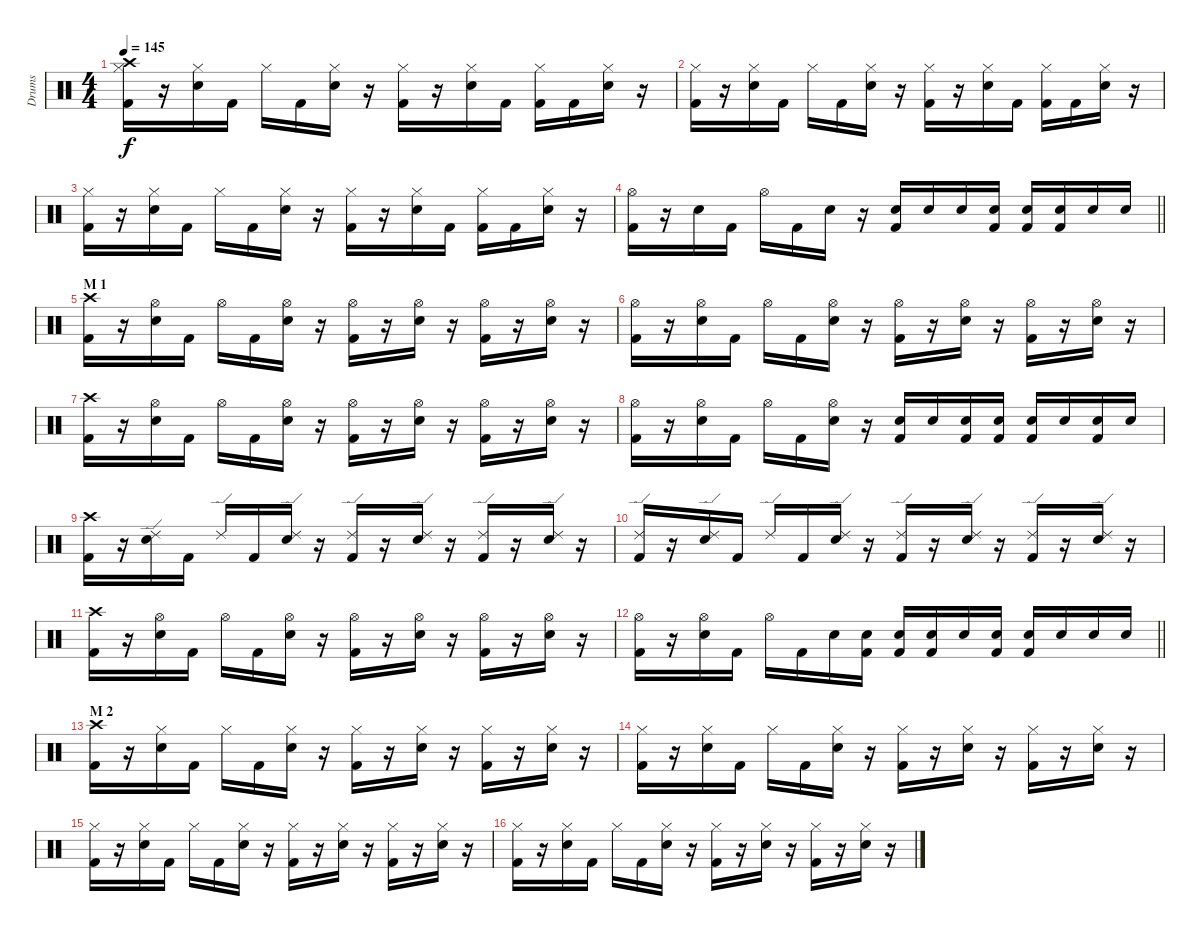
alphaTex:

\track ("Drums" "Drums") {instrument percussion}
\staff {score}
\articulation defaults
\ts (4 4)
\tempo 145
\clef neutral
\ks c
("Crash high (hit)" "Hi-Hat (closed)" "Kick (hit) 2").16{dy f} r.16 ("Hi-Hat (closed)" "Electric Snare (hit)").16 "Kick (hit) 2".16 "Hi-Hat (closed)".16 "Kick (hit) 2".16 ("Hi-Hat (closed)" "Electric Snare (hit)").16 r.16 ("Hi-Hat (closed)" "Kick (hit) 2").16 r.16 ("Hi-Hat (closed)" "Electric Snare (hit)").16 "Kick (hit) 2".16 ("Hi-Hat (closed)" "Kick (hit) 2").16 "Kick (hit) 2".16 ("Hi-Hat (closed)" "Electric Snare (hit)").16 r.16 |
("Hi-Hat (closed)" "Kick (hit) 2").16 r.16 ("Hi-Hat (closed)" "Electric Snare (hit)").16 "Kick (hit) 2".16 "Hi-Hat (closed)".16 "Kick (hit) 2".16 ("Hi-Hat (closed)" "Electric Snare (hit)").16 r.16 ("Hi-Hat (closed)" "Kick (hit) 2").16 r.16 ("Hi-Hat (closed)" "Electric Snare (hit)").16 "Kick (hit) 2".16 ("Hi-Hat (closed)" "Kick (hit) 2").16 "Kick (hit) 2".16 ("Hi-Hat (closed)" "Electric Snare (hit)").16 r.16 |
("Hi-Hat (closed)" "Kick (hit) 2").16 r.16 ("Hi-Hat (closed)" "Electric Snare (hit)").16 "Kick (hit) 2".16 "Hi-Hat (closed)".16 "Kick (hit) 2".16 ("Hi-Hat (closed)" "Electric Snare (hit)").16 r.16 ("Hi-Hat (closed)" "Kick (hit) 2").16 r.16 ("Hi-Hat (closed)" "Electric Snare (hit)").16 "Kick (hit) 2".16 ("Hi-Hat (closed)" "Kick (hit) 2").16 "Kick (hit) 2".16 ("Hi-Hat (closed)" "Electric Snare (hit)").16 r.16 |
\barLineRight lightlight
("Hi-Hat (open)" "Kick (hit) 2").16 r.16 "Electric Snare (hit)".16 "Kick (hit) 2".16 "Hi-Hat (open)".16 "Kick (hit) 2".16 "Electric Snare (hit)".16 r.16 ("Electric Snare (hit)" "Kick (hit) 2").16 "Electric Snare (hit)".16 "Electric Snare (hit)".16 ("Electric Snare (hit)" "Kick (hit) 2").16 ("Electric Snare (hit)" "Kick (hit) 2").16 ("Electric Snare (hit)" "Kick (hit) 2").16 "Electric Snare (hit)".16 "Electric Snare (hit)".16 |
\section ("" "M 1")
("Crash high (hit)" "Kick (hit) 2").16 r.16 ("Hi-Hat (open)" "Electric Snare (hit)").16 "Kick (hit) 2".16 "Hi-Hat (open)".16 "Kick (hit) 2".16 ("Hi-Hat (open)" "Electric Snare (hit)").16 r.16 ("Hi-Hat (open)" "Kick (hit) 2").16 r.16 ("Hi-Hat (open)" "Electric Snare (hit)").16 r.16 ("Hi-Hat (open)" "Kick (hit) 2").16 r.16 ("Hi-Hat (open)" "Electric Snare (hit)").16 r.16 |
("Hi-Hat (open)" "Kick (hit) 2").16 r.16 ("Hi-Hat (open)" "Electric Snare (hit)").16 "Kick (hit) 2".16 "Hi-Hat (open)".16 "Kick (hit) 2".16 ("Hi-Hat (open)" "Electric Snare (hit)").16 r.16 ("Hi-Hat (open)" "Kick (hit) 2").16 r.16 ("Hi-Hat (open)" "Electric Snare (hit)").16 r.16 ("Hi-Hat (open)" "Kick (hit) 2").16 r.16 ("Hi-Hat (open)" "Electric Snare (hit)").16 r.16 |
("Crash high (hit)" "Kick (hit) 2").16 r.16 ("Hi-Hat (open)" "Electric Snare (hit)").16 "Kick (hit) 2".16 "Hi-Hat (open)".16 "Kick (hit) 2".16 ("Hi-Hat (open)" "Electric Snare (hit)").16 r.16 ("Hi-Hat (open)" "Kick (hit) 2").16 r.16 ("Hi-Hat (open)" "Electric Snare (hit)").16 r.16 ("Hi-Hat (open)" "Kick (hit) 2").16 r.16 ("Hi-Hat (open)" "Electric Snare (hit)").16 r.16 |
("Hi-Hat (open)" "Kick (hit) 2").16 r.16 ("Hi-Hat (open)" "Electric Snare (hit)").16 "Kick (hit) 2".16 "Hi-Hat (open)".16 "Kick (hit) 2".16 ("Hi-Hat (open)" "Electric Snare (hit)").16 r.16 ("Electric Snare (hit)" "Kick (hit) 2").16 "Electric Snare (hit)".16 ("Electric Snare (hit)" "Kick (hit) 2").16 ("Electric Snare (hit)" "Kick (hit) 2").16 ("Electric Snare (hit)" "Kick (hit) 2").16 "Electric Snare (hit)".16 ("Electric Snare (hit)" "Kick (hit) 2").16 "Electric Snare (hit)".16 |
("Crash high (hit)" "Kick (hit) 2").16 r.16 ("Ride (edge) 2" "Electric Snare (hit)").16 "Kick (hit) 2".16 "Ride (edge) 2".16 "Kick (hit) 2".16 ("Ride (edge) 2" "Electric Snare (hit)").16 r.16 ("Ride (edge) 2" "Kick (hit) 2").16 r.16 ("Ride (edge) 2" "Electric Snare (hit)").16 r.16 ("Ride (edge) 2" "Kick (hit) 2").16 r.16 ("Ride (edge) 2" "Electric Snare (hit)").16 r.16 |
("Ride (edge) 2" "Kick (hit) 2").16 r.16 ("Ride (edge) 2" "Electric Snare (hit)").16 "Kick (hit) 2".16 "Ride (edge) 2".16 "Kick (hit) 2".16 ("Ride (edge) 2" "Electric Snare (hit)").16 r.16 ("Ride (edge) 2" "Kick (hit) 2").16 r.16 ("Ride (edge) 2" "Electric Snare (hit)").16 r.16 ("Ride (edge) 2" "Kick (hit) 2").16 r.16 ("Ride (edge) 2" "Electric Snare (hit)").16 r.16 |
("Crash high (hit)" "Kick (hit) 2").16 r.16 ("Hi-Hat (open)" "Electric Snare (hit)").16 "Kick (hit) 2".16 "Hi-Hat (open)".16 "Kick (hit) 2".16 ("Hi-Hat (open)" "Electric Snare (hit)").16 r.16 ("Hi-Hat (open)" "Kick (hit) 2").16 r.16 ("Hi-Hat (open)" "Electric Snare (hit)").16 r.16 ("Hi-Hat (open)" "Kick (hit) 2").16 r.16 ("Hi-Hat (open)" "Electric Snare (hit)").16 r.16 |
\barLineRight lightlight
("Hi-Hat (open)" "Kick (hit) 2").16 r.16 ("Hi-Hat (open)" "Electric Snare (hit)").16 "Kick (hit) 2".16 "Hi-Hat (open)".16 "Kick (hit) 2".16 "Electric Snare (hit)".16 ("Electric Snare (hit)" "Kick (hit) 2").16 ("Electric Snare (hit)" "Kick (hit) 2").16 ("Electric Snare (hit)" "Kick (hit) 2").16 "Electric Snare (hit)".16 ("Electric Snare (hit)" "Kick (hit) 2").16 ("Electric Snare (hit)" "Kick (hit) 2").16 "Electric Snare (hit)".16 "Electric Snare (hit)".16 "Electric Snare (hit)".16 |
\section ("" "M 2")
("Crash high (hit)" "Kick (hit) 2").16 r.16 ("Hi-Hat (closed)" "Electric Snare (hit)").16 "Kick (hit) 2".16 "Hi-Hat (closed)".16 "Kick (hit) 2".16 ("Hi-Hat (closed)" "Electric Snare (hit)").16 r.16 ("Hi-Hat (closed)" "Kick (hit) 2").16 r.16 ("Hi-Hat (closed)" "Electric Snare (hit)").16 r.16 ("Hi-Hat (closed)" "Kick (hit) 2").16 r.16 ("Hi-Hat (closed)" "Electric Snare (hit)").16 r.16 |
("Hi-Hat (closed)" "Kick (hit) 2").16 r.16 ("Hi-Hat (closed)" "Electric Snare (hit)").16 "Kick (hit) 2".16 "Hi-Hat (closed)".16 "Kick (hit) 2".16 ("Hi-Hat (closed)" "Electric Snare (hit)").16 r.16 ("Hi-Hat (closed)" "Kick (hit) 2").16 r.16 ("Hi-Hat (closed)" "Electric Snare (hit)").16 r.16 ("Hi-Hat (closed)" "Kick (hit) 2").16 r.16 ("Hi-Hat (closed)" "Electric Snare (hit)").16 r.16 |
("Hi-Hat (closed)" "Kick (hit) 2").16 r.16 ("Hi-Hat (closed)" "Electric Snare (hit)").16 "Kick (hit) 2".16 "Hi-Hat (closed)".16 "Kick (hit) 2".16 ("Hi-Hat (closed)" "Electric Snare (hit)").16 r.16 ("Hi-Hat (closed)" "Kick (hit) 2").16 r.16 ("Hi-Hat (closed)" "Electric Snare (hit)").16 r.16 ("Hi-Hat (closed)" "Kick (hit) 2").16 r.16 ("Hi-Hat (closed)" "Electric Snare (hit)").16 r.16 |
("Hi-Hat (closed)" "Kick (hit) 2").16 r.16 ("Hi-Hat (closed)" "Electric Snare (hit)").16 "Kick (hit) 2".16 "Hi-Hat (closed)".16 "Kick (hit) 2".16 ("Hi-Hat (closed)" "Electric Snare (hit)").16 r.16 ("Hi-Hat (closed)" "Kick (hit) 2").16 r.16 ("Hi-Hat (closed)" "Electric Snare (hit)").16 r.16 ("Hi-Hat (closed)" "Kick (hit) 2").16 r.16 ("Hi-Hat (closed)" "Electric Snare (hit)").16 r.16
